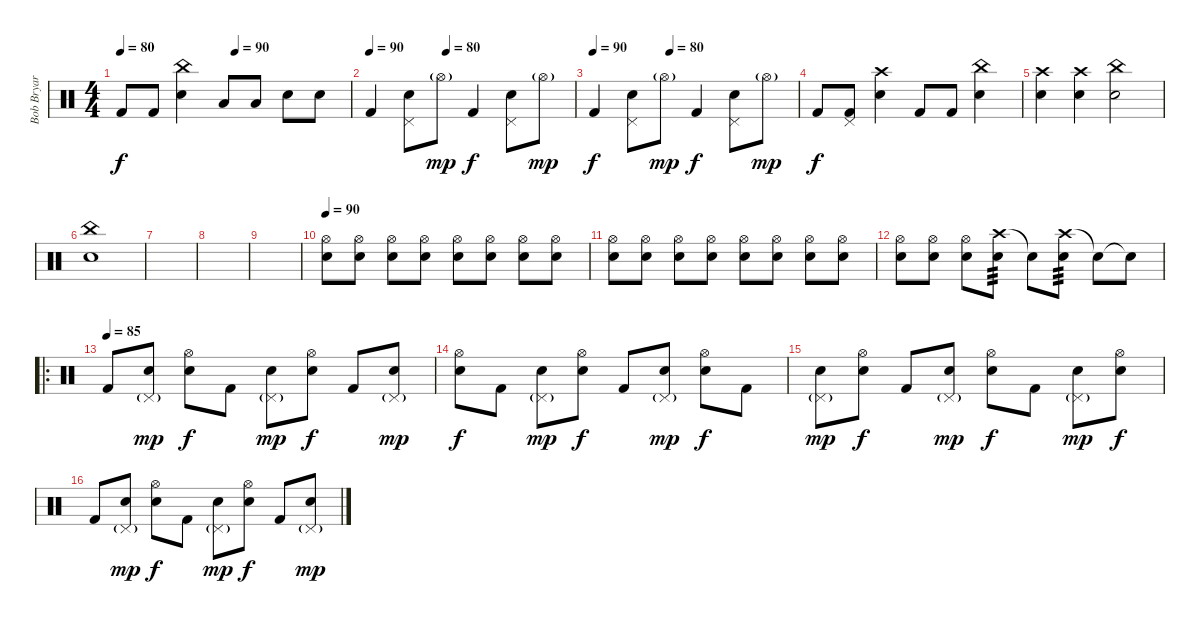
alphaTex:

\track ("Bob Bryar [Drums]" "Bob Bryar ") {instrument percussion}
\staff {score}
\articulation defaults
\ts (4 4)
\tempo 80
\tempo (90 0.5)
\clef neutral
\ks c "Kick (hit) 2".8{dy f} "Kick (hit) 2".8
("China (hit)" "Electric Snare (hit)").4 "Low Tom (hit)".8 "Low Tom (hit)".8 "Electric Snare (hit)".8 "Electric Snare (hit)".8 |
\tempo 90
\tempo (80 0.375)
"Kick (hit) 2".4 ("Pedal Hi-Hat (hit)" "Electric Snare (hit)").8 "Hi-Hat (open)"{g}.8{dy mp} "Kick (hit) 2".4{dy f} ("Pedal Hi-Hat (hit)" "Electric Snare (hit)").8 "Hi-Hat (open)"{g}.8{dy mp} |
\tempo 90
\tempo (80 0.375)
"Kick (hit) 2".4{dy f} ("Pedal Hi-Hat (hit)" "Electric Snare (hit)").8 "Hi-Hat (open)"{g}.8{dy mp} "Kick (hit) 2".4{dy f} ("Pedal Hi-Hat (hit)" "Electric Snare (hit)").8 "Hi-Hat (open)"{g}.8{dy mp} |
"Kick (hit) 2".8{dy f} ("Pedal Hi-Hat (hit)" "Kick (hit) 2").8 ("Crash high (hit)" "Electric Snare (hit)").4 "Kick (hit) 2".8 "Kick (hit) 2".8 ("China (hit)" "Electric Snare (hit)").4 |
("Crash high (hit)" "Electric Snare (hit)").4 ("Crash high (hit)" "Electric Snare (hit)").4 ("China (hit)" "Electric Snare (hit)").2 |
("China (hit)" "Electric Snare (hit)").1 |
|
|
|
\tempo 110
\tempo 90
("Hi-Hat (open)" "Electric Snare (hit)").8 ("Hi-Hat (open)" "Electric Snare (hit)").8 ("Hi-Hat (open)" "Electric Snare (hit)").8 ("Hi-Hat (open)" "Electric Snare (hit)").8{volume 16} ("Hi-Hat (open)" "Electric Snare (hit)").8 ("Hi-Hat (open)" "Electric Snare (hit)").8 ("Hi-Hat (open)" "Electric Snare (hit)").8 ("Hi-Hat (open)" "Electric Snare (hit)").8 |
("Hi-Hat (open)" "Electric Snare (hit)").8 ("Hi-Hat (open)" "Electric Snare (hit)").8 ("Hi-Hat (open)" "Electric Snare (hit)").8 ("Hi-Hat (open)" "Electric Snare (hit)").8 ("Hi-Hat (open)" "Electric Snare (hit)").8 ("Hi-Hat (open)" "Electric Snare (hit)").8 ("Hi-Hat (open)" "Electric Snare (hit)").8 ("Hi-Hat (open)" "Electric Snare (hit)").8 |
("Hi-Hat (open)" "Electric Snare (hit)").8 ("Hi-Hat (open)" "Electric Snare (hit)").8 ("Hi-Hat (open)" "Electric Snare (hit)").8 ("Crash high (hit)" "Electric Snare (hit)").8{tp 3} "Electric Snare (hit)"{t}.8 ("Crash high (hit)" "Electric Snare (hit)").8{tp 3} "Snare (hit)"{t}.8 "Snare (hit)"{t}.8 |
\ro
\tempo (85)
"Kick (hit) 2".8 ("Pedal Hi-Hat (hit)"{g} "Electric Snare (hit)").8{dy mp} ("Hi-Hat (open)" "Electric Snare (hit)").8{dy f} "Kick (hit) 2".8 ("Pedal Hi-Hat (hit)"{g} "Electric Snare (hit)").8{dy mp} ("Hi-Hat (open)" "Electric Snare (hit)").8{dy f} "Kick (hit) 2".8 ("Pedal Hi-Hat (hit)"{g} "Electric Snare (hit)").8{dy mp} |
("Hi-Hat (open)" "Electric Snare (hit)").8{dy f} "Kick (hit) 2".8 ("Pedal Hi-Hat (hit)"{g} "Electric Snare (hit)").8{dy mp} ("Hi-Hat (open)" "Electric Snare (hit)").8{dy f} "Kick (hit) 2".8 ("Pedal Hi-Hat (hit)"{g} "Electric Snare (hit)").8{dy mp} ("Hi-Hat (open)" "Electric Snare (hit)").8{dy f} "Kick (hit) 2".8 |
("Pedal Hi-Hat (hit)"{g} "Electric Snare (hit)").8{dy mp} ("Hi-Hat (open)" "Electric Snare (hit)").8{dy f} "Kick (hit) 2".8 ("Pedal Hi-Hat (hit)"{g} "Electric Snare (hit)").8{dy mp} ("Hi-Hat (open)" "Electric Snare (hit)").8{dy f} "Kick (hit) 2".8 ("Pedal Hi-Hat (hit)"{g} "Electric Snare (hit)").8{dy mp} ("Hi-Hat (open)" "Electric Snare (hit)").8{dy f} |
"Kick (hit) 2".8 ("Pedal Hi-Hat (hit)"{g} "Electric Snare (hit)").8{dy mp} ("Hi-Hat (open)" "Electric Snare (hit)").8{dy f} "Kick (hit) 2".8 ("Pedal Hi-Hat (hit)"{g} "Electric Snare (hit)").8{dy mp} ("Hi-Hat (open)" "Electric Snare (hit)").8{dy f} "Kick (hit) 2".8 ("Pedal Hi-Hat (hit)"{g} "Electric Snare (hit)").8{dy mp}
